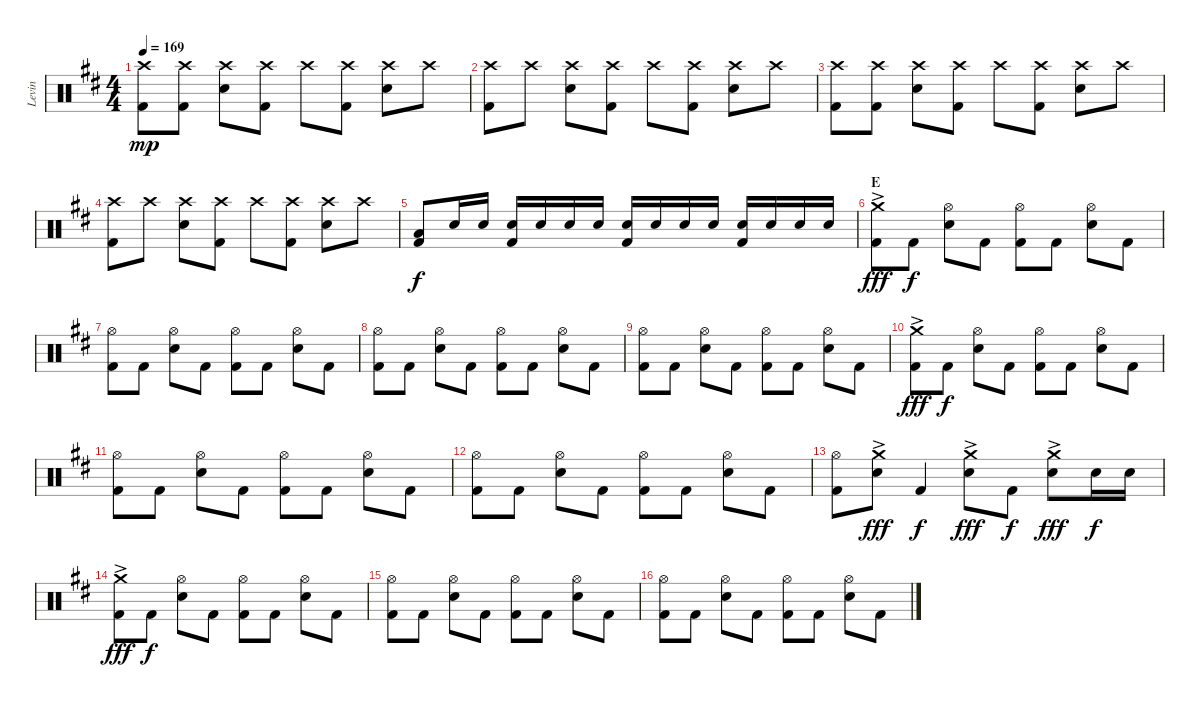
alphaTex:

\track ("Levin" "Levin") {instrument percussion}
\staff {score}
\articulation defaults
\ts (4 4)
\tempo 169
\clef neutral
\ks d
("Crash high (hit)" "Kick (hit) 2").8{dy mp} ("Crash high (hit)" "Kick (hit) 2").8 ("Crash high (hit)" "Electric Snare (hit)").8 ("Crash high (hit)" "Kick (hit) 2").8 "Crash high (hit)".8 ("Crash high (hit)" "Kick (hit) 2").8 ("Crash high (hit)" "Electric Snare (hit)").8 "Crash high (hit)".8 |
("Crash high (hit)" "Kick (hit) 2").8 "Crash high (hit)".8 ("Crash high (hit)" "Electric Snare (hit)").8 ("Crash high (hit)" "Kick (hit) 2").8 "Crash high (hit)".8 ("Crash high (hit)" "Kick (hit) 2").8 ("Crash high (hit)" "Electric Snare (hit)").8 "Crash high (hit)".8 |
("Crash high (hit)" "Kick (hit) 2").8 ("Crash high (hit)" "Kick (hit) 2").8 ("Crash high (hit)" "Electric Snare (hit)").8 ("Crash high (hit)" "Kick (hit) 2").8 "Crash high (hit)".8 ("Crash high (hit)" "Kick (hit) 2").8 ("Crash high (hit)" "Electric Snare (hit)").8 "Crash high (hit)".8 |
("Crash high (hit)" "Kick (hit) 2").8 "Crash high (hit)".8 ("Crash high (hit)" "Electric Snare (hit)").8 ("Crash high (hit)" "Kick (hit) 2").8 "Crash high (hit)".8 ("Crash high (hit)" "Kick (hit) 2").8 ("Crash high (hit)" "Electric Snare (hit)").8 "Crash high (hit)".8 |
("Low Tom (hit)" "Kick (hit) 2").8{dy f} "Electric Snare (hit)".16 "Electric Snare (hit)".16 ("Electric Snare (hit)" "Kick (hit) 2").16 "Electric Snare (hit)".16 "Electric Snare (hit)".16 "Electric Snare (hit)".16 ("Electric Snare (hit)" "Kick (hit) 2").16 "Electric Snare (hit)".16 "Electric Snare (hit)".16 "Electric Snare (hit)".16 ("Electric Snare (hit)" "Kick (hit) 2").16 "Electric Snare (hit)".16 "Electric Snare (hit)".16 "Electric Snare (hit)".16 |
\section ("" "E")
("Crash medium (hit)"{ac} "Kick (hit) 2").8{dy fff} "Kick (hit) 2".8{dy f} ("Hi-Hat (open)" "Electric Snare (hit)").8 "Kick (hit) 2".8 ("Hi-Hat (open)" "Kick (hit) 2").8 "Kick (hit) 2".8 ("Hi-Hat (open)" "Electric Snare (hit)").8 "Kick (hit) 2".8 |
("Hi-Hat (open)" "Kick (hit) 2").8 "Kick (hit) 2".8 ("Hi-Hat (open)" "Electric Snare (hit)").8 "Kick (hit) 2".8 ("Hi-Hat (open)" "Kick (hit) 2").8 "Kick (hit) 2".8 ("Hi-Hat (open)" "Electric Snare (hit)").8 "Kick (hit) 2".8 |
("Hi-Hat (open)" "Kick (hit) 2").8 "Kick (hit) 2".8 ("Hi-Hat (open)" "Electric Snare (hit)").8 "Kick (hit) 2".8 ("Hi-Hat (open)" "Kick (hit) 2").8 "Kick (hit) 2".8 ("Hi-Hat (open)" "Electric Snare (hit)").8 "Kick (hit) 2".8 |
("Hi-Hat (open)" "Kick (hit) 2").8 "Kick (hit) 2".8 ("Hi-Hat (open)" "Electric Snare (hit)").8 "Kick (hit) 2".8 ("Hi-Hat (open)" "Kick (hit) 2").8 "Kick (hit) 2".8 ("Hi-Hat (open)" "Electric Snare (hit)").8 "Kick (hit) 2".8 |
("Crash medium (hit)"{ac} "Kick (hit) 2").8{dy fff} "Kick (hit) 2".8{dy f} ("Hi-Hat (open)" "Electric Snare (hit)").8 "Kick (hit) 2".8 ("Hi-Hat (open)" "Kick (hit) 2").8 "Kick (hit) 2".8 ("Hi-Hat (open)" "Electric Snare (hit)").8 "Kick (hit) 2".8 |
("Hi-Hat (open)" "Kick (hit) 2").8 "Kick (hit) 2".8 ("Hi-Hat (open)" "Electric Snare (hit)").8 "Kick (hit) 2".8 ("Hi-Hat (open)" "Kick (hit) 2").8 "Kick (hit) 2".8 ("Hi-Hat (open)" "Electric Snare (hit)").8 "Kick (hit) 2".8 |
("Hi-Hat (open)" "Kick (hit) 2").8 "Kick (hit) 2".8 ("Hi-Hat (open)" "Electric Snare (hit)").8 "Kick (hit) 2".8 ("Hi-Hat (open)" "Kick (hit) 2").8 "Kick (hit) 2".8 ("Hi-Hat (open)" "Electric Snare (hit)").8 "Kick (hit) 2".8 |
("Hi-Hat (open)" "Kick (hit) 2").8 ("Crash medium (hit)"{ac} "Electric Snare (hit)").8{dy fff} "Kick (hit) 2".4{dy f} ("Crash medium (hit)"{ac} "Electric Snare (hit)").8{dy fff} "Kick (hit) 2".8{dy f} ("Crash medium (hit)"{ac} "Electric Snare (hit)").8{dy fff} "Electric Snare (hit)".16{dy f} "Electric Snare (hit)".16 |
("Crash medium (hit)"{ac} "Kick (hit) 2").8{dy fff} "Kick (hit) 2".8{dy f} ("Hi-Hat (open)" "Electric Snare (hit)").8 "Kick (hit) 2".8 ("Hi-Hat (open)" "Kick (hit) 2").8 "Kick (hit) 2".8 ("Hi-Hat (open)" "Electric Snare (hit)").8 "Kick (hit) 2".8 |
("Hi-Hat (open)" "Kick (hit) 2").8 "Kick (hit) 2".8 ("Hi-Hat (open)" "Electric Snare (hit)").8 "Kick (hit) 2".8 ("Hi-Hat (open)" "Kick (hit) 2").8 "Kick (hit) 2".8 ("Hi-Hat (open)" "Electric Snare (hit)").8 "Kick (hit) 2".8 |
("Hi-Hat (open)" "Kick (hit) 2").8 "Kick (hit) 2".8 ("Hi-Hat (open)" "Electric Snare (hit)").8 "Kick (hit) 2".8 ("Hi-Hat (open)" "Kick (hit) 2").8 "Kick (hit) 2".8 ("Hi-Hat (open)" "Electric Snare (hit)").8 "Kick (hit) 2".8
